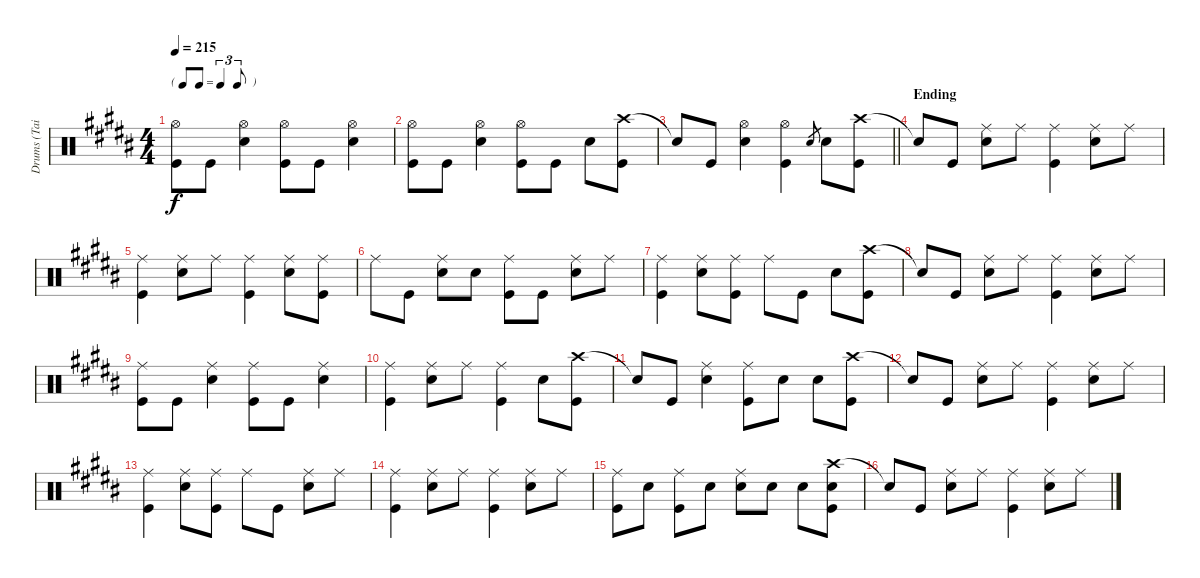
\track ("Drums (Tainaka Ritsu)" "Drums (Tai") {instrument percussion}
\staff {score}
\articulation defaults
\ts (4 4)
\tf triplet8th
\tempo 215
\clef neutral
\ks b
("Hi-Hat (open)" "Kick (hit)").8{dy f} "Kick (hit)".8 ("Hi-Hat (open)" "Snare (hit) 2").4 ("Hi-Hat (open)" "Kick (hit)").8 "Kick (hit)".8 ("Hi-Hat (open)" "Snare (hit) 2").4 |
("Hi-Hat (open)" "Kick (hit)").8 "Kick (hit)".8 ("Hi-Hat (open)" "Snare (hit) 2").4 ("Hi-Hat (open)" "Kick (hit)").8 "Kick (hit)".8 "Snare (hit) 2".8 ("Crash high (hit)" "Kick (hit)").8 |
\barLineRight lightlight "Snare (hit)"{t}.8 "Kick (hit)".8
("Hi-Hat (open)" "Snare (hit) 2").4 ("Hi-Hat (open)" "Kick (hit)").4 "Snare (hit) 2".8{gr} "Snare (hit) 2".8 ("Crash high (hit)" "Kick (hit)").8 |
\section ("" "Ending")
"Snare (hit)"{t}.8 "Kick (hit)".8 ("Ride (middle)" "Snare (hit) 2").8 "Ride (middle)".8 ("Ride (middle)" "Kick (hit)").4 ("Ride (middle)" "Snare (hit) 2").8 "Ride (middle)".8 |
("Ride (middle)" "Kick (hit)").4 ("Ride (middle)" "Snare (hit) 2").8 "Ride (middle)".8 ("Ride (middle)" "Kick (hit)").4 ("Ride (middle)" "Snare (hit) 2").8 ("Ride (middle)" "Kick (hit)").8 |
"Ride (middle)".8 "Kick (hit)".8 ("Ride (middle)" "Snare (hit) 2").8 "Snare (hit) 2".8 ("Ride (middle)" "Kick (hit)").8 "Kick (hit)".8 ("Ride (middle)" "Snare (hit) 2").8 "Ride (middle)".8 |
("Ride (middle)" "Kick (hit)").4 ("Ride (middle)" "Snare (hit) 2").8 ("Ride (middle)" "Kick (hit)").8 "Ride (middle)".8 "Kick (hit)".8 "Snare (hit) 2".8 ("Crash high (hit)" "Kick (hit)").8 |
"Snare (hit)"{t}.8 "Kick (hit)".8 ("Ride (middle)" "Snare (hit) 2").8 "Ride (middle)".8 ("Ride (middle)" "Kick (hit)").4 ("Ride (middle)" "Snare (hit) 2").8 "Ride (middle)".8 |
("Ride (middle)" "Kick (hit)").8 "Kick (hit)".8 ("Ride (middle)" "Snare (hit) 2").4 ("Ride (middle)" "Kick (hit)").8 "Kick (hit)".8 ("Ride (middle)" "Snare (hit) 2").4 |
("Ride (middle)" "Kick (hit)").4 ("Ride (middle)" "Snare (hit) 2").8 "Ride (middle)".8 ("Ride (middle)" "Kick (hit)").4 "Snare (hit) 2".8 ("Crash high (hit)" "Kick (hit)").8 |
"Snare (hit)"{t}.8 "Kick (hit)".8 ("Ride (middle)" "Snare (hit) 2").4 ("Ride (middle)" "Kick (hit)").8 "Snare (hit) 2".8 "Snare (hit) 2".8 ("Crash high (hit)" "Kick (hit)").8 |
"Snare (hit)"{t}.8 "Kick (hit)".8 ("Ride (middle)" "Snare (hit) 2").8 "Ride (middle)".8 ("Ride (middle)" "Kick (hit)").4 ("Ride (middle)" "Snare (hit) 2").8 "Ride (middle)".8 |
("Ride (middle)" "Kick (hit)").4 ("Ride (middle)" "Snare (hit) 2").8 ("Ride (middle)" "Kick (hit)").8 "Ride (middle)".8 "Kick (hit)".8 ("Ride (middle)" "Snare (hit) 2").8 "Ride (middle)".8 |
("Ride (middle)" "Kick (hit)").4 ("Ride (middle)" "Snare (hit) 2").8 "Ride (middle)".8 ("Ride (middle)" "Kick (hit)").4 ("Ride (middle)" "Snare (hit) 2").8 "Ride (middle)".8 |
("Ride (middle)" "Kick (hit)").8 "Snare (hit) 2".8 ("Ride (middle)" "Kick (hit)").8 "Snare (hit) 2".8 ("Ride (middle)" "Snare (hit) 2").8 "Snare (hit) 2".8 "Snare (hit) 2".8 ("Crash high (hit)" "Snare (hit) 2" "Kick (hit)").8 |
"Snare (hit)"{t}.8 "Kick (hit)".8 ("Ride (middle)" "Snare (hit) 2").8 "Ride (middle)".8 ("Ride (middle)" "Kick (hit)").4 ("Ride (middle)" "Snare (hit) 2").8 "Ride (middle)".8
